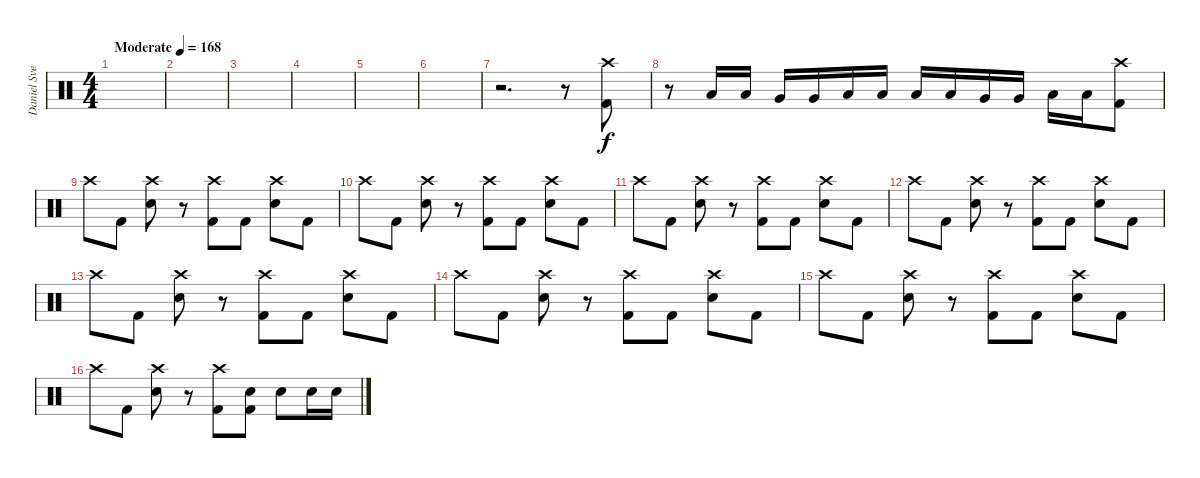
\track ("Daniel Svensson" "Daniel Sve") {instrument percussion}
\staff {score}
\articulation defaults
\ts (4 4)
\tempo (168 "Moderate")
\clef neutral
\ks c
|
|
|
|
|
|
r.2{d} r.8 ("Crash high (hit)" "Kick (hit) 2").8 |
r.8 "Low Tom (hit)".16 "Low Tom (hit)".16 "Very Low Tom (hit)".16 "Very Low Tom (hit)".16 "Low Floor Tom (hit)".16 "Low Floor Tom (hit)".16 "Low Tom (hit)".16 "Low Tom (hit)".16 "Very Low Tom (hit)".16 "Very Low Tom (hit)".16 "Low Floor Tom (hit)".16 "Low Floor Tom (hit)".16 ("Crash high (hit)" "Kick (hit) 2").8 |
"Crash high (hit)".8 "Kick (hit) 2".8 ("Crash high (hit)" "Electric Snare (hit)").8 r.8 ("Crash high (hit)" "Kick (hit) 2").8 "Kick (hit) 2".8 ("Crash high (hit)" "Electric Snare (hit)").8 "Kick (hit) 2".8 |
"Crash high (hit)".8 "Kick (hit) 2".8 ("Crash high (hit)" "Electric Snare (hit)").8 r.8 ("Crash high (hit)" "Kick (hit) 2").8 "Kick (hit) 2".8 ("Crash high (hit)" "Electric Snare (hit)").8 "Kick (hit) 2".8 |
"Crash high (hit)".8 "Kick (hit) 2".8 ("Crash high (hit)" "Electric Snare (hit)").8 r.8 ("Crash high (hit)" "Kick (hit) 2").8 "Kick (hit) 2".8 ("Crash high (hit)" "Electric Snare (hit)").8 "Kick (hit) 2".8 |
"Crash high (hit)".8 "Kick (hit) 2".8 ("Crash high (hit)" "Electric Snare (hit)").8 r.8 ("Crash high (hit)" "Kick (hit) 2").8 "Kick (hit) 2".8 ("Crash high (hit)" "Electric Snare (hit)").8 "Kick (hit) 2".8 |
"Crash high (hit)".8 "Kick (hit) 2".8 ("Crash high (hit)" "Electric Snare (hit)").8 r.8 ("Crash high (hit)" "Kick (hit) 2").8 "Kick (hit) 2".8 ("Crash high (hit)" "Electric Snare (hit)").8 "Kick (hit) 2".8 |
"Crash high (hit)".8 "Kick (hit) 2".8 ("Crash high (hit)" "Electric Snare (hit)").8 r.8 ("Crash high (hit)" "Kick (hit) 2").8 "Kick (hit) 2".8 ("Crash high (hit)" "Electric Snare (hit)").8 "Kick (hit) 2".8 |
"Crash high (hit)".8 "Kick (hit) 2".8 ("Crash high (hit)" "Electric Snare (hit)").8 r.8 ("Crash high (hit)" "Kick (hit) 2").8 "Kick (hit) 2".8 ("Crash high (hit)" "Electric Snare (hit)").8 "Kick (hit) 2".8 |
"Crash high (hit)".8 "Kick (hit) 2".8 ("Crash high (hit)" "Electric Snare (hit)").8 r.8 ("Crash high (hit)" "Kick (hit) 2").8 ("Electric Snare (hit)" "Kick (hit) 2").8 "Electric Snare (hit)".8 "Electric Snare (hit)".16 "Electric Snare (hit)".16
